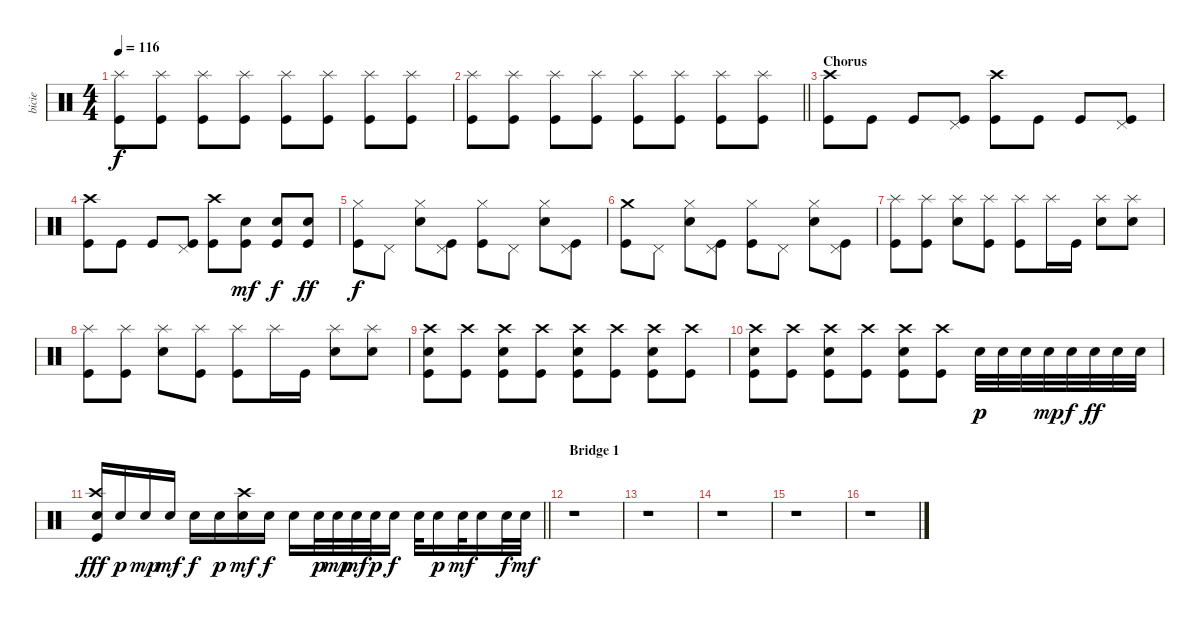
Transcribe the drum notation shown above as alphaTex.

\track ("bicie" "bicie") {instrument percussion}
\staff {score}
\articulation defaults
\ts (4 4)
\tempo 116
\clef neutral
\ks c
("Splash (hit)" "Kick (hit)").8{dy f} ("Splash (hit)" "Kick (hit)").8 ("Splash (hit)" "Kick (hit)").8 ("Splash (hit)" "Kick (hit)").8 ("Splash (hit)" "Kick (hit)").8 ("Splash (hit)" "Kick (hit)").8 ("Splash (hit)" "Kick (hit)").8 ("Splash (hit)" "Kick (hit)").8 |
\barLineRight lightlight
("Splash (hit)" "Kick (hit)").8 ("Splash (hit)" "Kick (hit)").8 ("Splash (hit)" "Kick (hit)").8 ("Splash (hit)" "Kick (hit)").8 ("Splash (hit)" "Kick (hit)").8 ("Splash (hit)" "Kick (hit)").8 ("Splash (hit)" "Kick (hit)").8 ("Splash (hit)" "Kick (hit)").8 |
\section ("" "Chorus")
("Crash high (hit)" "Kick (hit)").8 "Kick (hit)".8 "Kick (hit)".8 ("Pedal Hi-Hat (hit)" "Kick (hit)").8 ("Crash high (hit)" "Kick (hit)").8 "Kick (hit)".8 "Kick (hit)".8 ("Pedal Hi-Hat (hit)" "Kick (hit)").8 |
("Crash high (hit)" "Kick (hit)").8 "Kick (hit)".8 "Kick (hit)".8 ("Pedal Hi-Hat (hit)" "Kick (hit)").8 ("Crash high (hit)" "Kick (hit)").8 ("Electric Snare (hit)" "Kick (hit)").8{dy mf} ("Electric Snare (hit)" "Kick (hit)").8{dy f} ("Electric Snare (hit)" "Kick (hit)").8{dy ff} |
("Hi-Hat (closed)" "Kick (hit)").8{dy f} "Pedal Hi-Hat (hit)".8 ("Hi-Hat (closed)" "Electric Snare (hit)").8 ("Pedal Hi-Hat (hit)" "Kick (hit)").8 ("Hi-Hat (closed)" "Kick (hit)").8 "Pedal Hi-Hat (hit)".8 ("Hi-Hat (closed)" "Electric Snare (hit)").8 ("Pedal Hi-Hat (hit)" "Kick (hit)").8 |
("Crash medium (hit)" "Kick (hit)").8 "Pedal Hi-Hat (hit)".8 ("Hi-Hat (closed)" "Electric Snare (hit)").8 ("Pedal Hi-Hat (hit)" "Kick (hit)").8 ("Hi-Hat (closed)" "Kick (hit)").8 "Pedal Hi-Hat (hit)".8 ("Hi-Hat (closed)" "Electric Snare (hit)").8 ("Pedal Hi-Hat (hit)" "Kick (hit)").8 |
("Splash (hit)" "Kick (hit)").8 ("Splash (hit)" "Kick (hit)").8 ("Splash (hit)" "Electric Snare (hit)").8 ("Splash (hit)" "Kick (hit)").8 ("Splash (hit)" "Kick (hit)").8 "Splash (hit)".16 "Kick (hit)".16 ("Splash (hit)" "Electric Snare (hit)").8 ("Splash (hit)" "Electric Snare (hit)").8 |
("Splash (hit)" "Kick (hit)").8 ("Splash (hit)" "Kick (hit)").8 ("Splash (hit)" "Electric Snare (hit)").8 ("Splash (hit)" "Kick (hit)").8 ("Splash (hit)" "Kick (hit)").8 "Splash (hit)".16 "Kick (hit)".16 ("Splash (hit)" "Electric Snare (hit)").8 ("Splash (hit)" "Electric Snare (hit)").8 |
("Crash high (hit)" "Electric Snare (hit)" "Kick (hit)").8 ("Crash high (hit)" "Kick (hit)").8 ("Crash high (hit)" "Electric Snare (hit)" "Kick (hit)").8 ("Crash high (hit)" "Kick (hit)").8 ("Crash high (hit)" "Electric Snare (hit)" "Kick (hit)").8 ("Crash high (hit)" "Kick (hit)").8 ("Crash high (hit)" "Electric Snare (hit)" "Kick (hit)").8 ("Crash high (hit)" "Kick (hit)").8 |
("Crash high (hit)" "Electric Snare (hit)" "Kick (hit)").8 ("Crash high (hit)" "Kick (hit)").8 ("Crash high (hit)" "Electric Snare (hit)" "Kick (hit)").8 ("Crash high (hit)" "Kick (hit)").8 ("Crash high (hit)" "Electric Snare (hit)" "Kick (hit)").8 ("Crash high (hit)" "Kick (hit)").8 "Electric Snare (hit)".32{dy p} "Electric Snare (hit)".32 "Electric Snare (hit)".32 "Electric Snare (hit)".32{dy mp} "Electric Snare (hit)".32{dy f} "Electric Snare (hit)".32{dy ff} "Electric Snare (hit)".32 "Electric Snare (hit)".32 |
\barLineRight lightlight
("Crash high (hit)" "Electric Snare (hit)" "Kick (hit)").16{dy fff} "Electric Snare (hit)".16{dy p} "Electric Snare (hit)".16{dy mp} "Electric Snare (hit)".16{dy mf} "Electric Snare (hit)".16{dy f} "Electric Snare (hit)".16{dy p} ("Crash high (hit)" "Electric Snare (hit)").16{dy mf} "Electric Snare (hit)".16{dy f} "Electric Snare (hit)".16 "Electric Snare (hit)".32{dy p} "Electric Snare (hit)".32{dy mp} "Electric Snare (hit)".32{dy mf} "Electric Snare (hit)".32{dy p} "Electric Snare (hit)".16{dy f} "Electric Snare (hit)".32 "Electric Snare (hit)".16{dy p} "Electric Snare (hit)".32{dy mf} "Electric Snare (hit)".16 "Electric Snare (hit)".32{dy f} "Electric Snare (hit)".32{dy mf} |
\section ("" "Bridge 1")
r.1 |
r.1 |
r.1 |
r.1 |
r.1
